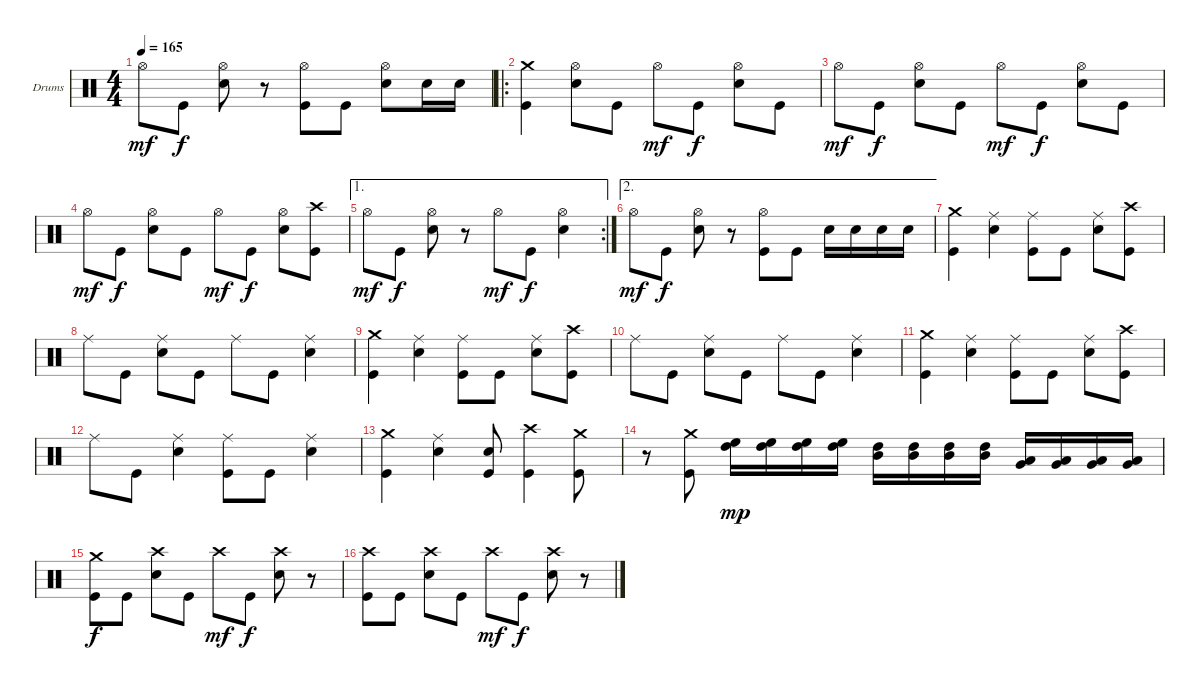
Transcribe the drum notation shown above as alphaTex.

\bracketExtendMode groupsimilarinstruments
\firstSystemTrackNameOrientation horizontal
\otherSystemsTrackNameOrientation horizontal
\track ("Drumkit Midi" "Drums") {instrument percussion}
\staff {score}
\articulation defaults
\ts (4 4)
\tempo 165
\clef neutral
\ks c "Hi-Hat (open)".8{dy mf} "Kick (hit)".8{dy f}
("Snare (hit) 2" "Hi-Hat (open)").8 r.8 ("Kick (hit)" "Hi-Hat (open)").8 "Kick (hit)".8 ("Snare (hit) 2" "Hi-Hat (open)").8 "Snare (hit) 2".16 "Snare (hit) 2".16 |
\ro
("Kick (hit)" "Crash medium (hit)").4 ("Snare (hit) 2" "Hi-Hat (open)").8 "Kick (hit)".8 "Hi-Hat (open)".8{dy mf} "Kick (hit)".8{dy f} ("Snare (hit) 2" "Hi-Hat (open)").8 "Kick (hit)".8 |
"Hi-Hat (open)".8{dy mf} "Kick (hit)".8{dy f} ("Snare (hit) 2" "Hi-Hat (open)").8 "Kick (hit)".8 "Hi-Hat (open)".8{dy mf} "Kick (hit)".8{dy f} ("Snare (hit) 2" "Hi-Hat (open)").8 "Kick (hit)".8 |
"Hi-Hat (open)".8{dy mf} "Kick (hit)".8{dy f} ("Snare (hit) 2" "Hi-Hat (open)").8 "Kick (hit)".8 "Hi-Hat (open)".8{dy mf} "Kick (hit)".8{dy f} ("Snare (hit) 2" "Hi-Hat (open)").8 ("Kick (hit)" "Crash high (hit)").8 |
\ae 1
\rc 2 "Hi-Hat (open)".8{dy mf} "Kick (hit)".8{dy f}
("Snare (hit) 2" "Hi-Hat (open)").8 r.8 "Hi-Hat (open)".8{dy mf} "Kick (hit)".8{dy f} ("Snare (hit) 2" "Hi-Hat (open)").4 |
\ae 2 "Hi-Hat (open)".8{dy mf} "Kick (hit)".8{dy f}
("Snare (hit) 2" "Hi-Hat (open)").8 r.8 ("Kick (hit)" "Hi-Hat (open)").8 "Kick (hit)".8 "Snare (hit) 2".16 "Snare (hit) 2".16 "Snare (hit) 2".16 "Snare (hit) 2".16 |
("Kick (hit)" "Crash medium (hit)").4 ("Snare (hit) 2" "Ride (middle)").4 ("Kick (hit)" "Ride (middle)").8 "Kick (hit)".8 ("Snare (hit) 2" "Ride (middle)").8 ("Kick (hit)" "Crash high (hit)").8 |
"Ride (middle)".8 "Kick (hit)".8 ("Snare (hit) 2" "Ride (middle)").8 "Kick (hit)".8 "Ride (middle)".8 "Kick (hit)".8 ("Snare (hit) 2" "Ride (middle)").4 |
("Kick (hit)" "Crash medium (hit)").4 ("Snare (hit) 2" "Ride (middle)").4 ("Kick (hit)" "Ride (middle)").8 "Kick (hit)".8 ("Snare (hit) 2" "Ride (middle)").8 ("Kick (hit)" "Crash high (hit)").8 |
"Ride (middle)".8 "Kick (hit)".8 ("Snare (hit) 2" "Ride (middle)").8 "Kick (hit)".8 "Ride (middle)".8 "Kick (hit)".8 ("Snare (hit) 2" "Ride (middle)").4 |
("Kick (hit)" "Crash medium (hit)").4 ("Snare (hit) 2" "Ride (middle)").4 ("Kick (hit)" "Ride (middle)").8 "Kick (hit)".8 ("Snare (hit) 2" "Ride (middle)").8 ("Kick (hit)" "Crash high (hit)").8 |
"Ride (middle)".8 "Kick (hit)".8 ("Snare (hit) 2" "Ride (middle)").4 ("Kick (hit)" "Ride (middle)").8 "Kick (hit)".8 ("Snare (hit) 2" "Ride (middle)").4 |
("Kick (hit)" "Crash medium (hit)").4 ("Snare (hit) 2" "Ride (middle)").4 ("Kick (hit)" "Snare (hit) 2").8 ("Kick (hit)" "Crash high (hit)").4 ("Kick (hit)" "Crash medium (hit)").8 |
r.8 ("Kick (hit)" "Crash medium (hit)").8 ("High Floor Tom (hit)" "High Tom (hit)").16{dy mp} ("High Floor Tom (hit)" "High Tom (hit)").16 ("High Floor Tom (hit)" "High Tom (hit)").16 ("High Floor Tom (hit)" "High Tom (hit)").16 ("High Tom (hit)" "Mid Tom (hit)").16 ("High Tom (hit)" "Mid Tom (hit)").16 ("High Tom (hit)" "Mid Tom (hit)").16 ("High Tom (hit)" "Mid Tom (hit)").16 ("Low Tom (hit)" "Very Low Tom (hit)").16 ("Low Tom (hit)" "Very Low Tom (hit)").16 ("Low Tom (hit)" "Very Low Tom (hit)").16 ("Low Tom (hit)" "Very Low Tom (hit)").16 |
("Kick (hit)" "Crash medium (hit)").8{dy f} "Kick (hit)".8 ("Snare (hit) 2" "Crash high (hit)").8 "Kick (hit)".8 "Crash high (hit)".8{dy mf} "Kick (hit)".8{dy f} ("Snare (hit) 2" "Crash high (hit)").8 r.8 |
("Kick (hit)" "Crash high (hit)").8 "Kick (hit)".8 ("Snare (hit) 2" "Crash high (hit)").8 "Kick (hit)".8 "Crash high (hit)".8{dy mf} "Kick (hit)".8{dy f} ("Snare (hit) 2" "Crash high (hit)").8 r.8
